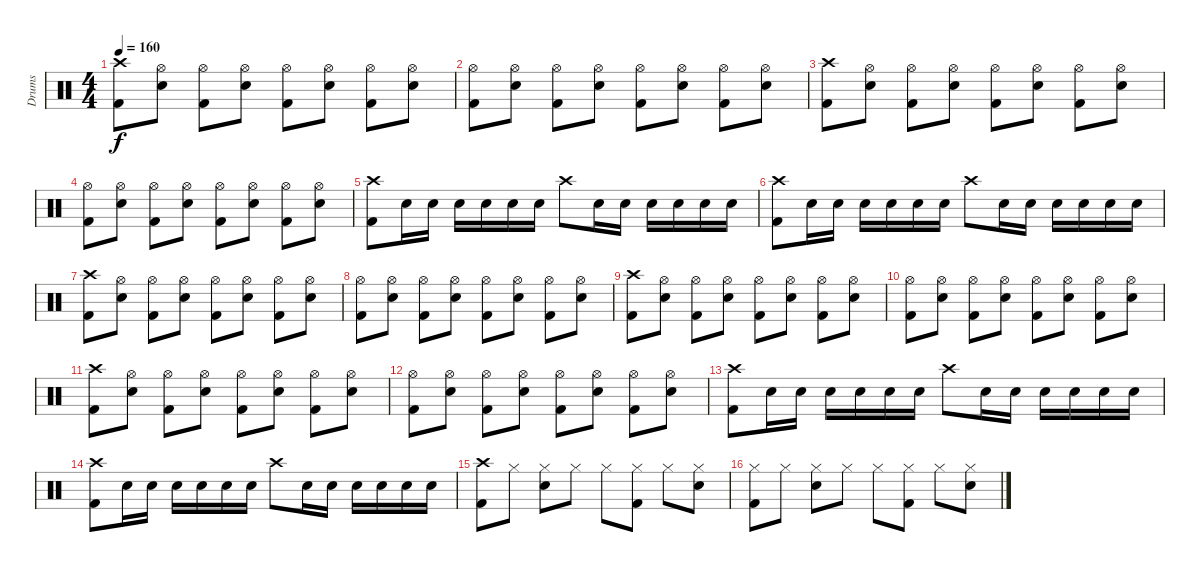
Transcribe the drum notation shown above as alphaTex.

\track ("Drums" "Drums") {solo instrument percussion}
\staff {score}
\articulation defaults
\ts (4 4)
\tempo 160
\clef neutral
\ks c
("Crash high (hit)" "Kick (hit) 2").8{dy f} ("Hi-Hat (open)" "Snare (hit) 2").8 ("Hi-Hat (open)" "Kick (hit) 2").8 ("Hi-Hat (open)" "Snare (hit) 2").8 ("Hi-Hat (open)" "Kick (hit) 2").8 ("Hi-Hat (open)" "Snare (hit) 2").8 ("Hi-Hat (open)" "Kick (hit) 2").8 ("Hi-Hat (open)" "Snare (hit) 2").8 |
("Hi-Hat (open)" "Kick (hit) 2").8 ("Hi-Hat (open)" "Snare (hit) 2").8 ("Hi-Hat (open)" "Kick (hit) 2").8 ("Hi-Hat (open)" "Snare (hit) 2").8 ("Hi-Hat (open)" "Kick (hit) 2").8 ("Hi-Hat (open)" "Snare (hit) 2").8 ("Hi-Hat (open)" "Kick (hit) 2").8 ("Hi-Hat (open)" "Snare (hit) 2").8 |
("Crash high (hit)" "Kick (hit) 2").8 ("Hi-Hat (open)" "Snare (hit) 2").8 ("Hi-Hat (open)" "Kick (hit) 2").8 ("Hi-Hat (open)" "Snare (hit) 2").8 ("Hi-Hat (open)" "Kick (hit) 2").8 ("Hi-Hat (open)" "Snare (hit) 2").8 ("Hi-Hat (open)" "Kick (hit) 2").8 ("Hi-Hat (open)" "Snare (hit) 2").8 |
("Hi-Hat (open)" "Kick (hit) 2").8 ("Hi-Hat (open)" "Snare (hit) 2").8 ("Hi-Hat (open)" "Kick (hit) 2").8 ("Hi-Hat (open)" "Snare (hit) 2").8 ("Hi-Hat (open)" "Kick (hit) 2").8 ("Hi-Hat (open)" "Snare (hit) 2").8 ("Hi-Hat (open)" "Kick (hit) 2").8 ("Hi-Hat (open)" "Snare (hit) 2").8 |
("Crash high (hit)" "Kick (hit) 2").8 "Snare (hit) 2".16 "Snare (hit) 2".16 "Snare (hit) 2".16 "Snare (hit) 2".16 "Snare (hit) 2".16 "Snare (hit) 2".16 "Crash high (hit)".8 "Snare (hit) 2".16 "Snare (hit) 2".16 "Snare (hit) 2".16 "Snare (hit) 2".16 "Snare (hit) 2".16 "Snare (hit) 2".16 |
("Crash high (hit)" "Kick (hit) 2").8 "Snare (hit) 2".16 "Snare (hit) 2".16 "Snare (hit) 2".16 "Snare (hit) 2".16 "Snare (hit) 2".16 "Snare (hit) 2".16 "Crash high (hit)".8 "Snare (hit) 2".16 "Snare (hit) 2".16 "Snare (hit) 2".16 "Snare (hit) 2".16 "Snare (hit) 2".16 "Snare (hit) 2".16 |
("Crash high (hit)" "Kick (hit) 2").8 ("Hi-Hat (open)" "Snare (hit) 2").8 ("Hi-Hat (open)" "Kick (hit) 2").8 ("Hi-Hat (open)" "Snare (hit) 2").8 ("Hi-Hat (open)" "Kick (hit) 2").8 ("Hi-Hat (open)" "Snare (hit) 2").8 ("Hi-Hat (open)" "Kick (hit) 2").8 ("Hi-Hat (open)" "Snare (hit) 2").8 |
("Hi-Hat (open)" "Kick (hit) 2").8 ("Hi-Hat (open)" "Snare (hit) 2").8 ("Hi-Hat (open)" "Kick (hit) 2").8 ("Hi-Hat (open)" "Snare (hit) 2").8 ("Hi-Hat (open)" "Kick (hit) 2").8 ("Hi-Hat (open)" "Snare (hit) 2").8 ("Hi-Hat (open)" "Kick (hit) 2").8 ("Hi-Hat (open)" "Snare (hit) 2").8 |
("Crash high (hit)" "Kick (hit) 2").8 ("Hi-Hat (open)" "Snare (hit) 2").8 ("Hi-Hat (open)" "Kick (hit) 2").8 ("Hi-Hat (open)" "Snare (hit) 2").8 ("Hi-Hat (open)" "Kick (hit) 2").8 ("Hi-Hat (open)" "Snare (hit) 2").8 ("Hi-Hat (open)" "Kick (hit) 2").8 ("Hi-Hat (open)" "Snare (hit) 2").8 |
("Hi-Hat (open)" "Kick (hit) 2").8 ("Hi-Hat (open)" "Snare (hit) 2").8 ("Hi-Hat (open)" "Kick (hit) 2").8 ("Hi-Hat (open)" "Snare (hit) 2").8 ("Hi-Hat (open)" "Kick (hit) 2").8 ("Hi-Hat (open)" "Snare (hit) 2").8 ("Hi-Hat (open)" "Kick (hit) 2").8 ("Hi-Hat (open)" "Snare (hit) 2").8 |
("Crash high (hit)" "Kick (hit) 2").8 ("Hi-Hat (open)" "Snare (hit) 2").8 ("Hi-Hat (open)" "Kick (hit) 2").8 ("Hi-Hat (open)" "Snare (hit) 2").8 ("Hi-Hat (open)" "Kick (hit) 2").8 ("Hi-Hat (open)" "Snare (hit) 2").8 ("Hi-Hat (open)" "Kick (hit) 2").8 ("Hi-Hat (open)" "Snare (hit) 2").8 |
("Hi-Hat (open)" "Kick (hit) 2").8 ("Hi-Hat (open)" "Snare (hit) 2").8 ("Hi-Hat (open)" "Kick (hit) 2").8 ("Hi-Hat (open)" "Snare (hit) 2").8 ("Hi-Hat (open)" "Kick (hit) 2").8 ("Hi-Hat (open)" "Snare (hit) 2").8 ("Hi-Hat (open)" "Kick (hit) 2").8 ("Hi-Hat (open)" "Snare (hit) 2").8 |
("Crash high (hit)" "Kick (hit) 2").8 "Snare (hit) 2".16 "Snare (hit) 2".16 "Snare (hit) 2".16 "Snare (hit) 2".16 "Snare (hit) 2".16 "Snare (hit) 2".16 "Crash high (hit)".8 "Snare (hit) 2".16 "Snare (hit) 2".16 "Snare (hit) 2".16 "Snare (hit) 2".16 "Snare (hit) 2".16 "Snare (hit) 2".16 |
("Crash high (hit)" "Kick (hit) 2").8 "Snare (hit) 2".16 "Snare (hit) 2".16 "Snare (hit) 2".16 "Snare (hit) 2".16 "Snare (hit) 2".16 "Snare (hit) 2".16 "Crash high (hit)".8 "Snare (hit) 2".16 "Snare (hit) 2".16 "Snare (hit) 2".16 "Snare (hit) 2".16 "Snare (hit) 2".16 "Snare (hit) 2".16 |
("Crash high (hit)" "Kick (hit) 2").8 "Hi-Hat (closed)".8 ("Hi-Hat (closed)" "Snare (hit) 2").8 "Hi-Hat (closed)".8 "Hi-Hat (closed)".8 ("Hi-Hat (closed)" "Kick (hit) 2").8 "Hi-Hat (closed)".8 ("Hi-Hat (closed)" "Snare (hit) 2").8 |
("Hi-Hat (closed)" "Kick (hit) 2").8 "Hi-Hat (closed)".8 ("Hi-Hat (closed)" "Snare (hit) 2").8 "Hi-Hat (closed)".8 "Hi-Hat (closed)".8 ("Hi-Hat (closed)" "Kick (hit) 2").8 "Hi-Hat (closed)".8 ("Hi-Hat (closed)" "Snare (hit) 2").8
